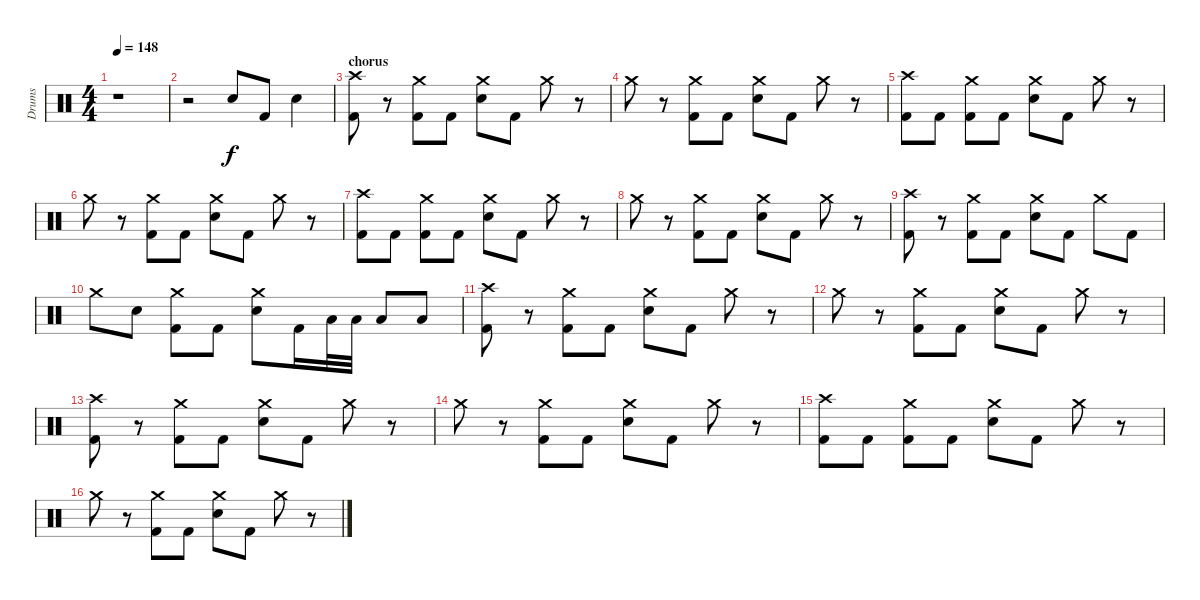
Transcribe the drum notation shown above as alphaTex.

\track ("Drums" "Drums") {instrument percussion}
\staff {score}
\articulation defaults
\ts (4 4)
\tempo 148
\clef neutral
\ks c
r.1{dy f} |
r.2 "Electric Snare (hit)".8 "Kick (hit) 2".8 "Electric Snare (hit)".4 |
\section ("" "chorus")
("Crash high (hit)" "Kick (hit) 2").8 r.8 ("Crash medium (hit)" "Kick (hit) 2").8 "Kick (hit) 2".8 ("Crash medium (hit)" "Electric Snare (hit)").8 "Kick (hit) 2".8 "Crash medium (hit)".8 r.8 |
"Crash medium (hit)".8 r.8 ("Crash medium (hit)" "Kick (hit) 2").8 "Kick (hit) 2".8 ("Crash medium (hit)" "Electric Snare (hit)").8 "Kick (hit) 2".8 "Crash medium (hit)".8 r.8 |
("Crash high (hit)" "Kick (hit) 2").8 "Kick (hit) 2".8 ("Crash medium (hit)" "Kick (hit) 2").8 "Kick (hit) 2".8 ("Crash medium (hit)" "Electric Snare (hit)").8 "Kick (hit) 2".8 "Crash medium (hit)".8 r.8 |
"Crash medium (hit)".8 r.8 ("Crash medium (hit)" "Kick (hit) 2").8 "Kick (hit) 2".8 ("Crash medium (hit)" "Electric Snare (hit)").8 "Kick (hit) 2".8 "Crash medium (hit)".8 r.8 |
("Crash high (hit)" "Kick (hit) 2").8 "Kick (hit) 2".8 ("Crash medium (hit)" "Kick (hit) 2").8 "Kick (hit) 2".8 ("Crash medium (hit)" "Electric Snare (hit)").8 "Kick (hit) 2".8 "Crash medium (hit)".8 r.8 |
"Crash medium (hit)".8 r.8 ("Crash medium (hit)" "Kick (hit) 2").8 "Kick (hit) 2".8 ("Crash medium (hit)" "Electric Snare (hit)").8 "Kick (hit) 2".8 "Crash medium (hit)".8 r.8 |
("Crash high (hit)" "Kick (hit) 2").8 r.8 ("Crash medium (hit)" "Kick (hit) 2").8 "Kick (hit) 2".8 ("Crash medium (hit)" "Electric Snare (hit)").8 "Kick (hit) 2".8 "Crash medium (hit)".8 "Kick (hit) 2".8 |
"Crash medium (hit)".8 "Electric Snare (hit)".8 ("Crash medium (hit)" "Kick (hit) 2").8 "Kick (hit) 2".8 ("Crash medium (hit)" "Electric Snare (hit)").8 "Kick (hit) 2".16 "Low Tom (hit)".32 "Low Tom (hit)".32 "Low Tom (hit)".8 "Low Tom (hit)".8 |
("Crash high (hit)" "Kick (hit) 2").8 r.8 ("Crash medium (hit)" "Kick (hit) 2").8 "Kick (hit) 2".8 ("Crash medium (hit)" "Electric Snare (hit)").8 "Kick (hit) 2".8 "Crash medium (hit)".8 r.8 |
"Crash medium (hit)".8 r.8 ("Crash medium (hit)" "Kick (hit) 2").8 "Kick (hit) 2".8 ("Crash medium (hit)" "Electric Snare (hit)").8 "Kick (hit) 2".8 "Crash medium (hit)".8 r.8 |
("Crash high (hit)" "Kick (hit) 2").8 r.8 ("Crash medium (hit)" "Kick (hit) 2").8 "Kick (hit) 2".8 ("Crash medium (hit)" "Electric Snare (hit)").8 "Kick (hit) 2".8 "Crash medium (hit)".8 r.8 |
"Crash medium (hit)".8 r.8 ("Crash medium (hit)" "Kick (hit) 2").8 "Kick (hit) 2".8 ("Crash medium (hit)" "Electric Snare (hit)").8 "Kick (hit) 2".8 "Crash medium (hit)".8 r.8 |
("Crash high (hit)" "Kick (hit) 2").8 "Kick (hit) 2".8 ("Crash medium (hit)" "Kick (hit) 2").8 "Kick (hit) 2".8 ("Crash medium (hit)" "Electric Snare (hit)").8 "Kick (hit) 2".8 "Crash medium (hit)".8 r.8 |
"Crash medium (hit)".8 r.8 ("Crash medium (hit)" "Kick (hit) 2").8 "Kick (hit) 2".8 ("Crash medium (hit)" "Electric Snare (hit)").8 "Kick (hit) 2".8 "Crash medium (hit)".8 r.8
